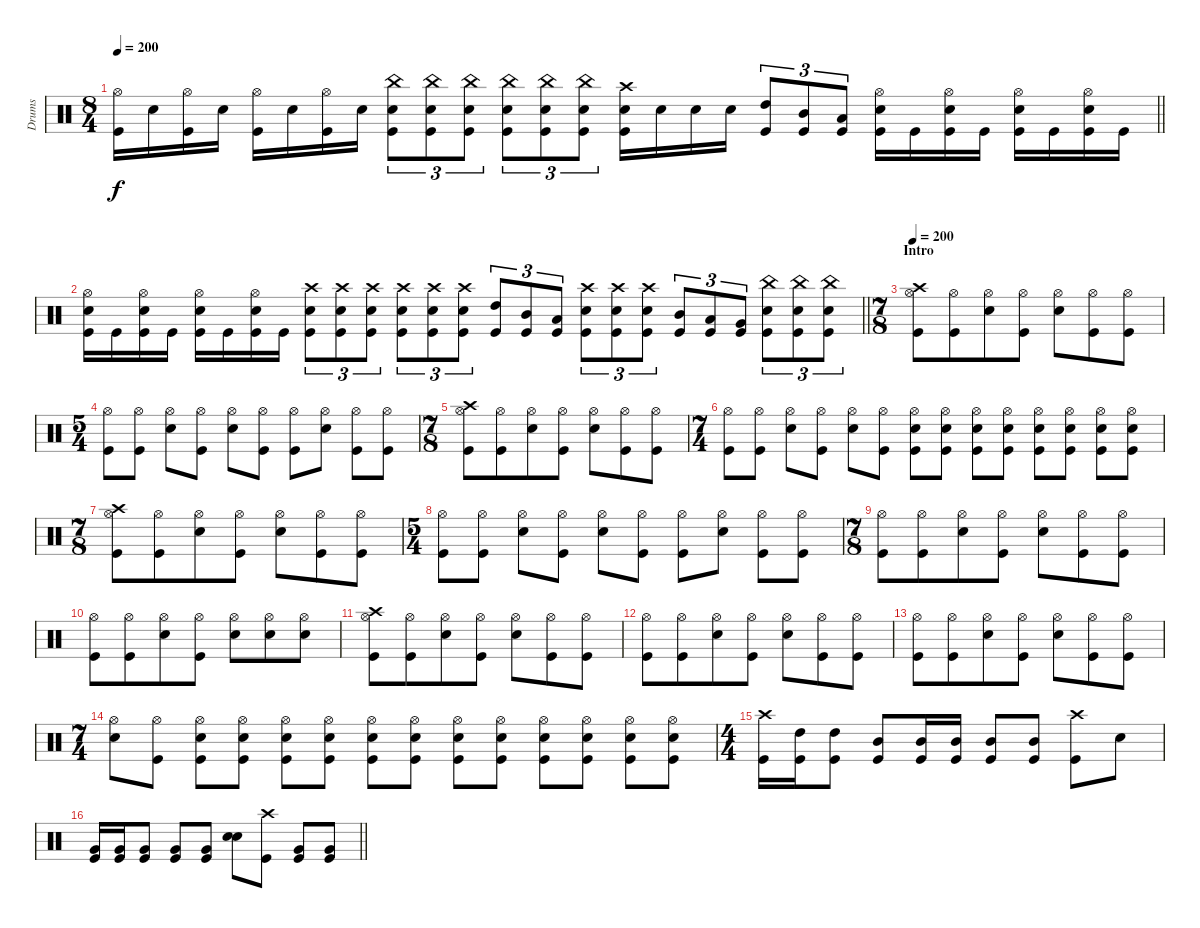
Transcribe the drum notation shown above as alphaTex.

\track ("Drums" "Drums") {instrument percussion}
\staff {score}
\articulation defaults
\ts (8 4)
\tempo 200
\clef neutral
\barLineRight lightlight
\ks c
("Hi-Hat (open)" "Kick (hit)").16{dy f} "Snare (hit) 2".16 ("Kick (hit)" "Hi-Hat (open)").16 "Snare (hit) 2".16 ("Kick (hit)" "Hi-Hat (open)").16 "Snare (hit) 2".16 ("Kick (hit)" "Hi-Hat (open)").16 "Snare (hit) 2".16 ("Kick (hit)" "Snare (hit) 2" "China (hit)").8{tu (3 2)} ("Kick (hit)" "Snare (hit) 2" "China (hit)").8{tu (3 2)} ("Kick (hit)" "Snare (hit) 2" "China (hit)").8{tu (3 2)} ("Kick (hit)" "Snare (hit) 2" "China (hit)").8{tu (3 2)} ("Kick (hit)" "Snare (hit) 2" "China (hit)").8{tu (3 2)} ("Kick (hit)" "Snare (hit) 2" "China (hit)").8{tu (3 2)} ("Kick (hit)" "Crash high (hit)" "Snare (hit) 2").16 "Snare (hit) 2".16 "Snare (hit) 2".16 "Snare (hit) 2".16 ("Kick (hit)" "High Tom (hit)").8{tu (3 2)} ("Kick (hit)" "Mid Tom (hit)").8{tu (3 2)} ("Kick (hit)" "Low Tom (hit)").8{tu (3 2)} ("Kick (hit)" "Snare (hit) 2" "Hi-Hat (open)").16 "Kick (hit)".16 ("Kick (hit)" "Snare (hit) 2" "Hi-Hat (open)").16 "Kick (hit)".16 ("Kick (hit)" "Snare (hit) 2" "Hi-Hat (open)").16 "Kick (hit)".16 ("Kick (hit)" "Snare (hit) 2" "Hi-Hat (open)").16 "Kick (hit)".16 |
\barLineRight lightlight
("Kick (hit)" "Snare (hit) 2" "Hi-Hat (open)").16 "Kick (hit)".16 ("Kick (hit)" "Snare (hit) 2" "Hi-Hat (open)").16 "Kick (hit)".16 ("Kick (hit)" "Snare (hit) 2" "Hi-Hat (open)").16 "Kick (hit)".16 ("Kick (hit)" "Snare (hit) 2" "Hi-Hat (open)").16 "Kick (hit)".16 ("Kick (hit)" "Snare (hit) 2" "Crash high (hit)").8{tu (3 2)} ("Kick (hit)" "Snare (hit) 2" "Crash high (hit)").8{tu (3 2)} ("Kick (hit)" "Snare (hit) 2" "Crash high (hit)").8{tu (3 2)} ("Kick (hit)" "Snare (hit) 2" "Crash high (hit)").8{tu (3 2)} ("Kick (hit)" "Snare (hit) 2" "Crash high (hit)").8{tu (3 2)} ("Kick (hit)" "Snare (hit) 2" "Crash high (hit)").8{tu (3 2)} ("Kick (hit)" "High Tom (hit)").8{tu (3 2)} ("Kick (hit)" "Mid Tom (hit)").8{tu (3 2)} ("Kick (hit)" "Low Tom (hit)").8{tu (3 2)} ("Kick (hit)" "Snare (hit) 2" "Crash high (hit)").8{tu (3 2)} ("Kick (hit)" "Snare (hit) 2" "Crash high (hit)").8{tu (3 2)} ("Kick (hit)" "Snare (hit) 2" "Crash high (hit)").8{tu (3 2)} ("Kick (hit)" "Mid Tom (hit)").8{tu (3 2)} ("Kick (hit)" "Low Tom (hit)").8{tu (3 2)} ("Kick (hit)" "Very Low Tom (hit)").8{tu (3 2)} ("Kick (hit)" "Snare (hit) 2" "China (hit)").8{tu (3 2)} ("Kick (hit)" "Snare (hit) 2" "China (hit)").8{tu (3 2)} ("Kick (hit)" "Snare (hit) 2" "China (hit)").8{tu (3 2)} |
\ts (7 8)
\section ("" "Intro")
\tempo 200
("Kick (hit)" "Hi-Hat (open)" "Crash high (hit)").8 ("Kick (hit)" "Hi-Hat (open)").8 ("Snare (hit) 2" "Hi-Hat (open)").8 ("Kick (hit)" "Hi-Hat (open)").8 ("Snare (hit) 2" "Hi-Hat (open)").8 ("Kick (hit)" "Hi-Hat (open)").8 ("Kick (hit)" "Hi-Hat (open)").8 |
\ts (5 4)
("Kick (hit)" "Hi-Hat (open)").8 ("Kick (hit)" "Hi-Hat (open)").8 ("Snare (hit) 2" "Hi-Hat (open)").8 ("Kick (hit)" "Hi-Hat (open)").8 ("Snare (hit) 2" "Hi-Hat (open)").8 ("Kick (hit)" "Hi-Hat (open)").8 ("Kick (hit)" "Hi-Hat (open)").8 ("Snare (hit) 2" "Hi-Hat (open)").8 ("Kick (hit)" "Hi-Hat (open)").8 ("Kick (hit)" "Hi-Hat (open)").8 |
\ts (7 8)
("Kick (hit)" "Hi-Hat (open)" "Crash high (hit)").8 ("Kick (hit)" "Hi-Hat (open)").8 ("Snare (hit) 2" "Hi-Hat (open)").8 ("Kick (hit)" "Hi-Hat (open)").8 ("Snare (hit) 2" "Hi-Hat (open)").8 ("Kick (hit)" "Hi-Hat (open)").8 ("Kick (hit)" "Hi-Hat (open)").8 |
\ts (7 4)
("Kick (hit)" "Hi-Hat (open)").8 ("Kick (hit)" "Hi-Hat (open)").8 ("Snare (hit) 2" "Hi-Hat (open)").8 ("Kick (hit)" "Hi-Hat (open)").8 ("Snare (hit) 2" "Hi-Hat (open)").8 ("Kick (hit)" "Hi-Hat (open)").8 ("Kick (hit)" "Hi-Hat (open)" "Snare (hit) 2").8 ("Kick (hit)" "Hi-Hat (open)" "Snare (hit) 2").8 ("Kick (hit)" "Snare (hit) 2" "Hi-Hat (open)").8 ("Kick (hit)" "Hi-Hat (open)" "Snare (hit) 2").8 ("Kick (hit)" "Snare (hit) 2" "Hi-Hat (open)").8 ("Kick (hit)" "Hi-Hat (open)" "Snare (hit) 2").8 ("Kick (hit)" "Snare (hit) 2" "Hi-Hat (open)").8 ("Kick (hit)" "Hi-Hat (open)" "Snare (hit) 2").8 |
\ts (7 8)
("Kick (hit)" "Hi-Hat (open)" "Crash high (hit)").8 ("Kick (hit)" "Hi-Hat (open)").8 ("Snare (hit) 2" "Hi-Hat (open)").8 ("Kick (hit)" "Hi-Hat (open)").8 ("Snare (hit) 2" "Hi-Hat (open)").8 ("Kick (hit)" "Hi-Hat (open)").8 ("Kick (hit)" "Hi-Hat (open)").8 |
\ts (5 4)
("Kick (hit)" "Hi-Hat (open)").8 ("Kick (hit)" "Hi-Hat (open)").8 ("Snare (hit) 2" "Hi-Hat (open)").8 ("Kick (hit)" "Hi-Hat (open)").8 ("Snare (hit) 2" "Hi-Hat (open)").8 ("Kick (hit)" "Hi-Hat (open)").8 ("Kick (hit)" "Hi-Hat (open)").8 ("Snare (hit) 2" "Hi-Hat (open)").8 ("Kick (hit)" "Hi-Hat (open)").8 ("Kick (hit)" "Hi-Hat (open)").8 |
\ts (7 8)
("Kick (hit)" "Hi-Hat (open)").8 ("Kick (hit)" "Hi-Hat (open)").8 ("Snare (hit) 2" "Hi-Hat (open)").8 ("Kick (hit)" "Hi-Hat (open)").8 ("Snare (hit) 2" "Hi-Hat (open)").8 ("Kick (hit)" "Hi-Hat (open)").8 ("Kick (hit)" "Hi-Hat (open)").8 |
("Kick (hit)" "Hi-Hat (open)").8 ("Kick (hit)" "Hi-Hat (open)").8 ("Hi-Hat (open)" "Snare (hit) 2").8 ("Kick (hit)" "Hi-Hat (open)").8 ("Hi-Hat (open)" "Snare (hit) 2").8 ("Hi-Hat (open)" "Snare (hit) 2").8 ("Hi-Hat (open)" "Snare (hit) 2").8 |
("Kick (hit)" "Hi-Hat (open)" "Crash high (hit)").8 ("Kick (hit)" "Hi-Hat (open)").8 ("Hi-Hat (open)" "Snare (hit) 2").8 ("Kick (hit)" "Hi-Hat (open)").8 ("Hi-Hat (open)" "Snare (hit) 2").8 ("Kick (hit)" "Hi-Hat (open)").8 ("Kick (hit)" "Hi-Hat (open)").8 |
("Kick (hit)" "Hi-Hat (open)").8 ("Kick (hit)" "Hi-Hat (open)").8 ("Hi-Hat (open)" "Snare (hit) 2").8 ("Kick (hit)" "Hi-Hat (open)").8 ("Hi-Hat (open)" "Snare (hit) 2").8 ("Kick (hit)" "Hi-Hat (open)").8 ("Kick (hit)" "Hi-Hat (open)").8 |
("Kick (hit)" "Hi-Hat (open)").8 ("Kick (hit)" "Hi-Hat (open)").8 ("Hi-Hat (open)" "Snare (hit) 2").8 ("Kick (hit)" "Hi-Hat (open)").8 ("Hi-Hat (open)" "Snare (hit) 2").8 ("Kick (hit)" "Hi-Hat (open)").8 ("Kick (hit)" "Hi-Hat (open)").8 |
\ts (7 4)
("Hi-Hat (open)" "Snare (hit) 2").8 ("Kick (hit)" "Hi-Hat (open)").8 ("Kick (hit)" "Snare (hit) 2" "Hi-Hat (open)").8 ("Kick (hit)" "Hi-Hat (open)" "Snare (hit) 2").8 ("Kick (hit)" "Hi-Hat (open)" "Snare (hit) 2").8 ("Kick (hit)" "Hi-Hat (open)" "Snare (hit) 2").8 ("Kick (hit)" "Snare (hit) 2" "Hi-Hat (open)").8 ("Kick (hit)" "Hi-Hat (open)" "Snare (hit) 2").8 ("Kick (hit)" "Hi-Hat (open)" "Snare (hit) 2").8 ("Kick (hit)" "Hi-Hat (open)" "Snare (hit) 2").8 ("Kick (hit)" "Snare (hit) 2" "Hi-Hat (open)").8 ("Kick (hit)" "Hi-Hat (open)" "Snare (hit) 2").8 ("Kick (hit)" "Snare (hit) 2" "Hi-Hat (open)").8 ("Kick (hit)" "Hi-Hat (open)" "Snare (hit) 2").8 |
\ts (4 4)
("Kick (hit)" "Crash high (hit)").16 ("Kick (hit)" "High Tom (hit)").16 ("Kick (hit)" "High Tom (hit)").8 ("Kick (hit)" "Mid Tom (hit)").8 ("Kick (hit)" "Mid Tom (hit)").16 ("Kick (hit)" "Mid Tom (hit)").16 ("Kick (hit)" "Mid Tom (hit)").8 ("Kick (hit)" "Mid Tom (hit)").8 ("Kick (hit)" "Crash high (hit)").8 "Snare (hit) 2".8 |
\barLineRight lightlight
("Kick (hit)" "Very Low Tom (hit)").16 ("Kick (hit)" "Very Low Tom (hit)").16 ("Kick (hit)" "Very Low Tom (hit)").8 ("Kick (hit)" "Very Low Tom (hit)").8 ("Kick (hit)" "Very Low Tom (hit)").8 ("Snare (hit) 2" "Snare (hit) 2").8 ("Kick (hit)" "Crash high (hit)").8 ("Kick (hit)" "Very Low Tom (hit)").8 ("Kick (hit)" "Very Low Tom (hit)").8
